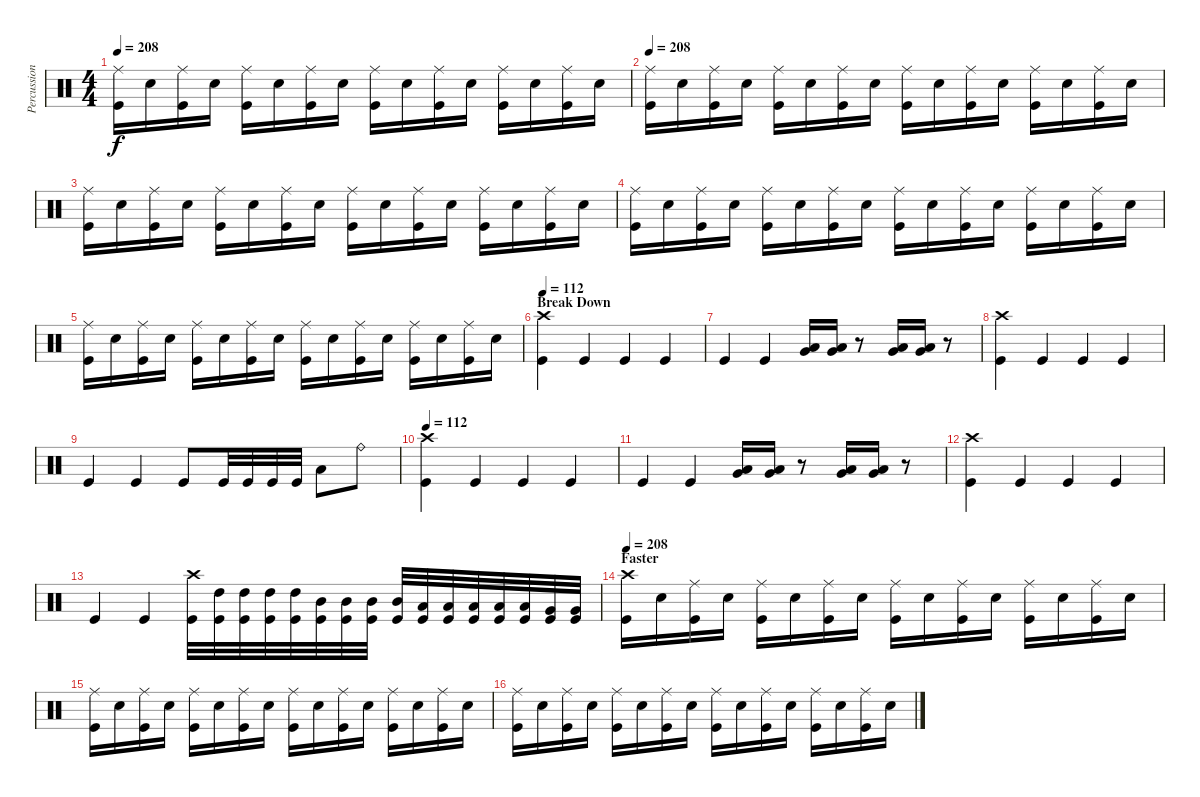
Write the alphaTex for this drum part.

\track ("Percussion" "Percussion") {instrument percussion}
\staff {score}
\articulation defaults
\ts (4 4)
\tempo 208
\clef neutral
\ks c
("Ride (middle)" "Kick (hit)").16{dy f} "Electric Snare (hit)".16 ("Ride (middle)" "Kick (hit)").16 "Electric Snare (hit)".16 ("Ride (middle)" "Kick (hit)").16 "Electric Snare (hit)".16 ("Ride (middle)" "Kick (hit)").16 "Electric Snare (hit)".16 ("Ride (middle)" "Kick (hit)").16 "Electric Snare (hit)".16 ("Ride (middle)" "Kick (hit)").16 "Electric Snare (hit)".16 ("Ride (middle)" "Kick (hit)").16 "Electric Snare (hit)".16 ("Ride (middle)" "Kick (hit)").16 "Electric Snare (hit)".16 |
\tempo 208
("Ride (middle)" "Kick (hit)").16 "Electric Snare (hit)".16 ("Ride (middle)" "Kick (hit)").16 "Electric Snare (hit)".16 ("Ride (middle)" "Kick (hit)").16 "Electric Snare (hit)".16 ("Ride (middle)" "Kick (hit)").16 "Electric Snare (hit)".16 ("Ride (middle)" "Kick (hit)").16 "Electric Snare (hit)".16 ("Ride (middle)" "Kick (hit)").16 "Electric Snare (hit)".16 ("Ride (middle)" "Kick (hit)").16 "Electric Snare (hit)".16 ("Ride (middle)" "Kick (hit)").16 "Electric Snare (hit)".16 |
("Ride (middle)" "Kick (hit)").16 "Electric Snare (hit)".16 ("Ride (middle)" "Kick (hit)").16 "Electric Snare (hit)".16 ("Ride (middle)" "Kick (hit)").16 "Electric Snare (hit)".16 ("Ride (middle)" "Kick (hit)").16 "Electric Snare (hit)".16 ("Ride (middle)" "Kick (hit)").16 "Electric Snare (hit)".16 ("Ride (middle)" "Kick (hit)").16 "Electric Snare (hit)".16 ("Ride (middle)" "Kick (hit)").16 "Electric Snare (hit)".16 ("Ride (middle)" "Kick (hit)").16 "Electric Snare (hit)".16 |
("Ride (middle)" "Kick (hit)").16 "Electric Snare (hit)".16 ("Ride (middle)" "Kick (hit)").16 "Electric Snare (hit)".16 ("Ride (middle)" "Kick (hit)").16 "Electric Snare (hit)".16 ("Ride (middle)" "Kick (hit)").16 "Electric Snare (hit)".16 ("Ride (middle)" "Kick (hit)").16 "Electric Snare (hit)".16 ("Ride (middle)" "Kick (hit)").16 "Electric Snare (hit)".16 ("Ride (middle)" "Kick (hit)").16 "Electric Snare (hit)".16 ("Ride (middle)" "Kick (hit)").16 "Electric Snare (hit)".16 |
("Ride (middle)" "Kick (hit)").16 "Electric Snare (hit)".16 ("Ride (middle)" "Kick (hit)").16 "Electric Snare (hit)".16 ("Ride (middle)" "Kick (hit)").16 "Electric Snare (hit)".16 ("Ride (middle)" "Kick (hit)").16 "Electric Snare (hit)".16 ("Ride (middle)" "Kick (hit)").16 "Electric Snare (hit)".16 ("Ride (middle)" "Kick (hit)").16 "Electric Snare (hit)".16 ("Ride (middle)" "Kick (hit)").16 "Electric Snare (hit)".16 ("Ride (middle)" "Kick (hit)").16 "Electric Snare (hit)".16 |
\section ("" "Break Down")
\tempo 112
("Crash high (hit)" "Kick (hit)").4 "Kick (hit)".4 "Kick (hit)".4 "Kick (hit)".4 |
"Kick (hit)".4 "Kick (hit)".4 ("Very Low Tom (hit)" "Low Floor Tom (hit)").16 ("Very Low Tom (hit)" "Low Floor Tom (hit)").16 r.8 ("Very Low Tom (hit)" "Low Floor Tom (hit)").16 ("Very Low Tom (hit)" "Low Floor Tom (hit)").16 r.8 |
("Crash high (hit)" "Kick (hit)").4 "Kick (hit)".4 "Kick (hit)".4 "Kick (hit)".4 |
"Kick (hit)".4 "Kick (hit)".4 "Kick (hit)".8 "Kick (hit)".32 "Kick (hit)".32 "Kick (hit)".32 "Kick (hit)".32 "Low Floor Tom (hit)".8 "Ride (bell)".8 |
\tempo 112
("Crash high (hit)" "Kick (hit)").4 "Kick (hit)".4 "Kick (hit)".4 "Kick (hit)".4 |
"Kick (hit)".4 "Kick (hit)".4 ("Very Low Tom (hit)" "Low Floor Tom (hit)").16 ("Very Low Tom (hit)" "Low Floor Tom (hit)").16 r.8 ("Very Low Tom (hit)" "Low Floor Tom (hit)").16 ("Very Low Tom (hit)" "Low Floor Tom (hit)").16 r.8 |
("Crash high (hit)" "Kick (hit)").4 "Kick (hit)".4 "Kick (hit)".4 "Kick (hit)".4 |
"Kick (hit)".4 "Kick (hit)".4 ("Crash high (hit)" "Kick (hit)").32 ("High Tom (hit)" "Kick (hit)").32 ("High Tom (hit)" "Kick (hit)").32 ("High Tom (hit)" "Kick (hit)").32 ("High Tom (hit)" "Kick (hit)").32 ("Mid Tom (hit)" "Kick (hit)").32 ("Mid Tom (hit)" "Kick (hit)").32 ("Mid Tom (hit)" "Kick (hit)").32 ("Mid Tom (hit)" "Kick (hit)").32 ("Low Tom (hit)" "Kick (hit)").32 ("Low Tom (hit)" "Kick (hit)").32 ("Low Tom (hit)" "Kick (hit)").32 ("Low Tom (hit)" "Kick (hit)").32 ("Low Tom (hit)" "Kick (hit)").32 ("Very Low Tom (hit)" "Kick (hit)").32 ("Very Low Tom (hit)" "Kick (hit)").32 |
\section ("" "Faster")
\tempo 208
("Crash high (hit)" "Kick (hit)").16 "Electric Snare (hit)".16 ("Ride (middle)" "Kick (hit)").16 "Electric Snare (hit)".16 ("Ride (middle)" "Kick (hit)").16 "Electric Snare (hit)".16 ("Ride (middle)" "Kick (hit)").16 "Electric Snare (hit)".16 ("Ride (middle)" "Kick (hit)").16 "Electric Snare (hit)".16 ("Ride (middle)" "Kick (hit)").16 "Electric Snare (hit)".16 ("Ride (middle)" "Kick (hit)").16 "Electric Snare (hit)".16 ("Ride (middle)" "Kick (hit)").16 "Electric Snare (hit)".16 |
("Ride (middle)" "Kick (hit)").16 "Electric Snare (hit)".16 ("Ride (middle)" "Kick (hit)").16 "Electric Snare (hit)".16 ("Ride (middle)" "Kick (hit)").16 "Electric Snare (hit)".16 ("Ride (middle)" "Kick (hit)").16 "Electric Snare (hit)".16 ("Ride (middle)" "Kick (hit)").16 "Electric Snare (hit)".16 ("Ride (middle)" "Kick (hit)").16 "Electric Snare (hit)".16 ("Ride (middle)" "Kick (hit)").16 "Electric Snare (hit)".16 ("Ride (middle)" "Kick (hit)").16 "Electric Snare (hit)".16 |
("Ride (middle)" "Kick (hit)").16 "Electric Snare (hit)".16 ("Ride (middle)" "Kick (hit)").16 "Electric Snare (hit)".16 ("Ride (middle)" "Kick (hit)").16 "Electric Snare (hit)".16 ("Ride (middle)" "Kick (hit)").16 "Electric Snare (hit)".16 ("Ride (middle)" "Kick (hit)").16 "Electric Snare (hit)".16 ("Ride (middle)" "Kick (hit)").16 "Electric Snare (hit)".16 ("Ride (middle)" "Kick (hit)").16 "Electric Snare (hit)".16 ("Ride (middle)" "Kick (hit)").16 "Electric Snare (hit)".16
